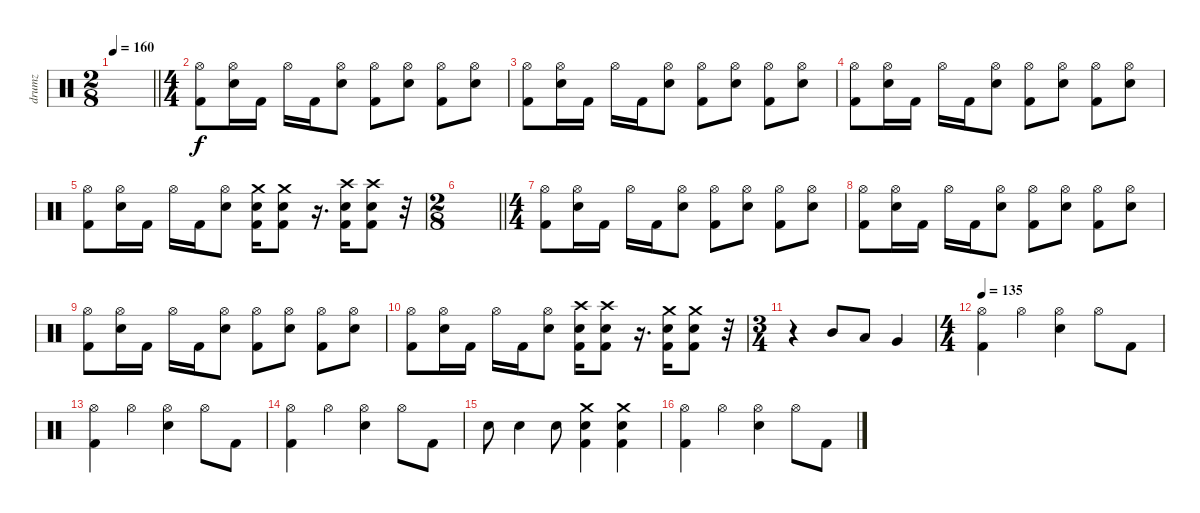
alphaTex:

\track ("drumz" "drumz") {instrument percussion}
\staff {score}
\articulation defaults
\ts (2 8)
\tempo 160
\clef neutral
\barLineRight lightlight
\ks c
|
\ts (4 4)
("Hi-Hat (open)" "Kick (hit) 2").8 ("Hi-Hat (open)" "Electric Snare (hit)").16 "Kick (hit) 2".16 "Hi-Hat (open)".16 "Kick (hit) 2".16 ("Hi-Hat (open)" "Electric Snare (hit)").8 ("Hi-Hat (open)" "Kick (hit) 2").8 ("Hi-Hat (open)" "Electric Snare (hit)").8 ("Hi-Hat (open)" "Kick (hit) 2").8 ("Hi-Hat (open)" "Electric Snare (hit)").8 |
("Hi-Hat (open)" "Kick (hit) 2").8 ("Hi-Hat (open)" "Electric Snare (hit)").16 "Kick (hit) 2".16 "Hi-Hat (open)".16 "Kick (hit) 2".16 ("Hi-Hat (open)" "Electric Snare (hit)").8 ("Hi-Hat (open)" "Kick (hit) 2").8 ("Hi-Hat (open)" "Electric Snare (hit)").8 ("Hi-Hat (open)" "Kick (hit) 2").8 ("Hi-Hat (open)" "Electric Snare (hit)").8 |
("Hi-Hat (open)" "Kick (hit) 2").8 ("Hi-Hat (open)" "Electric Snare (hit)").16 "Kick (hit) 2".16 "Hi-Hat (open)".16 "Kick (hit) 2".16 ("Hi-Hat (open)" "Electric Snare (hit)").8 ("Hi-Hat (open)" "Kick (hit) 2").8 ("Hi-Hat (open)" "Electric Snare (hit)").8 ("Hi-Hat (open)" "Kick (hit) 2").8 ("Hi-Hat (open)" "Electric Snare (hit)").8 |
("Hi-Hat (open)" "Kick (hit) 2").8 ("Hi-Hat (open)" "Electric Snare (hit)").16 "Kick (hit) 2".16 "Hi-Hat (open)".16 "Kick (hit) 2".16 ("Hi-Hat (open)" "Electric Snare (hit)").8 ("Crash medium (hit)" "Electric Snare (hit)" "Kick (hit) 2").16 ("Crash medium (hit)" "Electric Snare (hit)" "Kick (hit) 2").8 r.16{d} ("Crash high (hit)" "Electric Snare (hit)" "Kick (hit) 2").16 ("Crash high (hit)" "Electric Snare (hit)" "Kick (hit) 2").8 r.32 |
\ts (2 8)
\barLineRight lightlight
|
\ts (4 4)
("Hi-Hat (open)" "Kick (hit) 2").8 ("Hi-Hat (open)" "Electric Snare (hit)").16 "Kick (hit) 2".16 "Hi-Hat (open)".16 "Kick (hit) 2".16 ("Hi-Hat (open)" "Electric Snare (hit)").8 ("Hi-Hat (open)" "Kick (hit) 2").8 ("Hi-Hat (open)" "Electric Snare (hit)").8 ("Hi-Hat (open)" "Kick (hit) 2").8 ("Hi-Hat (open)" "Electric Snare (hit)").8 |
("Hi-Hat (open)" "Kick (hit) 2").8 ("Hi-Hat (open)" "Electric Snare (hit)").16 "Kick (hit) 2".16 "Hi-Hat (open)".16 "Kick (hit) 2".16 ("Hi-Hat (open)" "Electric Snare (hit)").8 ("Hi-Hat (open)" "Kick (hit) 2").8 ("Hi-Hat (open)" "Electric Snare (hit)").8 ("Hi-Hat (open)" "Kick (hit) 2").8 ("Hi-Hat (open)" "Electric Snare (hit)").8 |
("Hi-Hat (open)" "Kick (hit) 2").8 ("Hi-Hat (open)" "Electric Snare (hit)").16 "Kick (hit) 2".16 "Hi-Hat (open)".16 "Kick (hit) 2".16 ("Hi-Hat (open)" "Electric Snare (hit)").8 ("Hi-Hat (open)" "Kick (hit) 2").8 ("Hi-Hat (open)" "Electric Snare (hit)").8 ("Hi-Hat (open)" "Kick (hit) 2").8 ("Hi-Hat (open)" "Electric Snare (hit)").8 |
("Hi-Hat (open)" "Kick (hit) 2").8 ("Hi-Hat (open)" "Electric Snare (hit)").16 "Kick (hit) 2".16 "Hi-Hat (open)".16 "Kick (hit) 2".16 ("Hi-Hat (open)" "Electric Snare (hit)").8 ("Crash high (hit)" "Electric Snare (hit)" "Kick (hit) 2").16 ("Crash high (hit)" "Electric Snare (hit)" "Kick (hit) 2").8 r.16{d} ("Crash medium (hit)" "Electric Snare (hit)" "Kick (hit) 2").16 ("Crash medium (hit)" "Electric Snare (hit)" "Kick (hit) 2").8 r.32 |
\ts (3 4)
r.4 "Mid Tom (hit)".8 "Low Tom (hit)".8 "Very Low Tom (hit)".4 |
\ts (4 4)
\tempo 135
("Hi-Hat (open)" "Kick (hit) 2").4 "Hi-Hat (open)".4 ("Hi-Hat (open)" "Electric Snare (hit)").4 "Hi-Hat (open)".8 "Kick (hit) 2".8 |
("Hi-Hat (open)" "Kick (hit) 2").4 "Hi-Hat (open)".4 ("Hi-Hat (open)" "Electric Snare (hit)").4 "Hi-Hat (open)".8 "Kick (hit) 2".8 |
("Hi-Hat (open)" "Kick (hit) 2").4 "Hi-Hat (open)".4 ("Hi-Hat (open)" "Electric Snare (hit)").4 "Hi-Hat (open)".8 "Kick (hit) 2".8 |
"Electric Snare (hit)".8 "Electric Snare (hit)".4 "Electric Snare (hit)".8 ("Crash medium (hit)" "Electric Snare (hit)" "Kick (hit) 2").4 ("Crash medium (hit)" "Electric Snare (hit)" "Kick (hit) 2").4 |
("Hi-Hat (open)" "Kick (hit) 2").4 "Hi-Hat (open)".4 ("Hi-Hat (open)" "Electric Snare (hit)").4 "Hi-Hat (open)".8 "Kick (hit) 2".8
